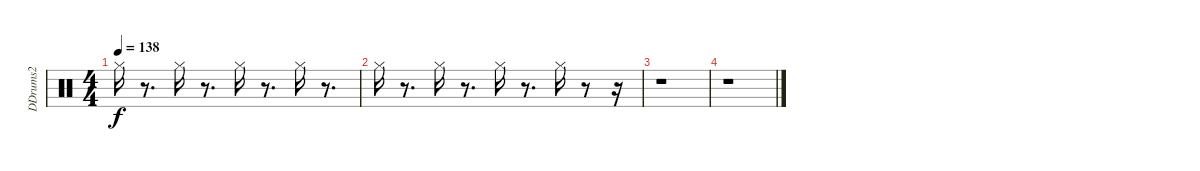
\track ("DDrums2" "DDrums2") {instrument percussion}
\staff {score}
\articulation defaults
\ts (4 4)
\tempo 138
\clef neutral
\ks c "Hi-Hat (closed)".16{dy f}
r.8{d} "Hi-Hat (closed)".16 r.8{d} "Hi-Hat (closed)".16 r.8{d} "Hi-Hat (closed)".16 r.8{d} |
"Hi-Hat (closed)".16 r.8{d} "Hi-Hat (closed)".16 r.8{d} "Hi-Hat (closed)".16 r.8{d} "Hi-Hat (closed)".16 r.8 r.16 |
r.1 |
r.1
